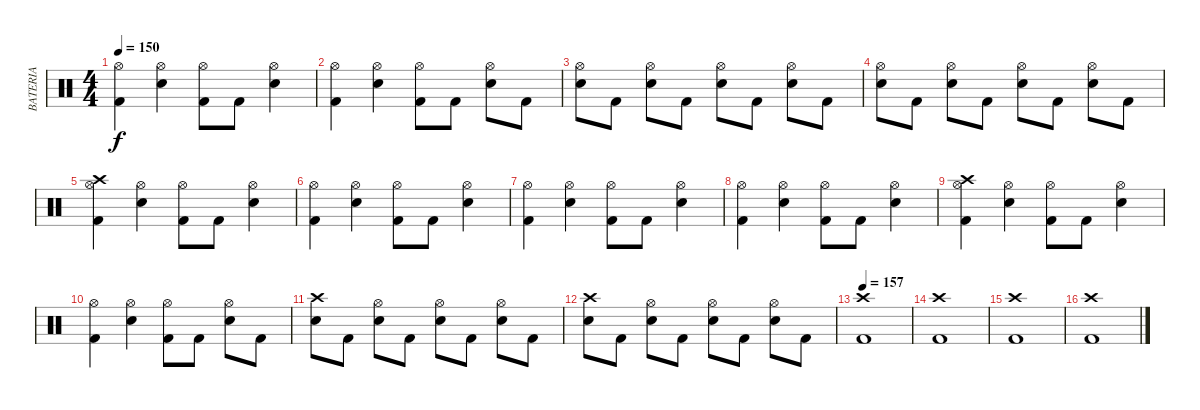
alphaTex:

\track ("BATERIA" "BATERIA") {instrument percussion}
\staff {score}
\articulation defaults
\ts (4 4)
\tempo 150
\clef neutral
\ks c
("Hi-Hat (open)" "Kick (hit) 2").4{dy f} ("Hi-Hat (open)" "Snare (hit) 2").4 ("Hi-Hat (open)" "Kick (hit) 2").8 "Kick (hit) 2".8 ("Hi-Hat (open)" "Snare (hit) 2").4 |
("Hi-Hat (open)" "Kick (hit) 2").4 ("Hi-Hat (open)" "Snare (hit) 2").4 ("Hi-Hat (open)" "Kick (hit) 2").8 "Kick (hit) 2".8 ("Hi-Hat (open)" "Snare (hit) 2").8 "Kick (hit) 2".8 |
("Hi-Hat (open)" "Snare (hit) 2").8 "Kick (hit) 2".8 ("Hi-Hat (open)" "Snare (hit) 2").8 "Kick (hit) 2".8 ("Hi-Hat (open)" "Snare (hit) 2").8 "Kick (hit) 2".8 ("Hi-Hat (open)" "Snare (hit) 2").8 "Kick (hit) 2".8 |
("Hi-Hat (open)" "Snare (hit) 2").8 "Kick (hit) 2".8 ("Hi-Hat (open)" "Snare (hit) 2").8 "Kick (hit) 2".8 ("Hi-Hat (open)" "Snare (hit) 2").8 "Kick (hit) 2".8 ("Hi-Hat (open)" "Snare (hit) 2").8 "Kick (hit) 2".8 |
("Crash high (hit)" "Hi-Hat (open)" "Kick (hit) 2").4 ("Hi-Hat (open)" "Snare (hit) 2").4 ("Hi-Hat (open)" "Kick (hit) 2").8 "Kick (hit) 2".8 ("Hi-Hat (open)" "Snare (hit) 2").4 |
("Hi-Hat (open)" "Kick (hit) 2").4 ("Hi-Hat (open)" "Snare (hit) 2").4 ("Hi-Hat (open)" "Kick (hit) 2").8 "Kick (hit) 2".8 ("Hi-Hat (open)" "Snare (hit) 2").4 |
("Hi-Hat (open)" "Kick (hit) 2").4 ("Hi-Hat (open)" "Snare (hit) 2").4 ("Hi-Hat (open)" "Kick (hit) 2").8 "Kick (hit) 2".8 ("Hi-Hat (open)" "Snare (hit) 2").4 |
("Hi-Hat (open)" "Kick (hit) 2").4 ("Hi-Hat (open)" "Snare (hit) 2").4 ("Hi-Hat (open)" "Kick (hit) 2").8 "Kick (hit) 2".8 ("Hi-Hat (open)" "Snare (hit) 2").4 |
("Crash high (hit)" "Hi-Hat (open)" "Kick (hit) 2").4 ("Hi-Hat (open)" "Snare (hit) 2").4 ("Hi-Hat (open)" "Kick (hit) 2").8 "Kick (hit) 2".8 ("Hi-Hat (open)" "Snare (hit) 2").4 |
("Hi-Hat (open)" "Kick (hit) 2").4 ("Hi-Hat (open)" "Snare (hit) 2").4 ("Hi-Hat (open)" "Kick (hit) 2").8 "Kick (hit) 2".8 ("Hi-Hat (open)" "Snare (hit) 2").8 "Kick (hit) 2".8 |
("Crash high (hit)" "Snare (hit) 2").8 "Kick (hit) 2".8 ("Hi-Hat (open)" "Snare (hit) 2").8 "Kick (hit) 2".8 ("Hi-Hat (open)" "Snare (hit) 2").8 "Kick (hit) 2".8 ("Hi-Hat (open)" "Snare (hit) 2").8 "Kick (hit) 2".8 |
("Crash high (hit)" "Snare (hit) 2").8 "Kick (hit) 2".8 ("Hi-Hat (open)" "Snare (hit) 2").8 "Kick (hit) 2".8 ("Hi-Hat (open)" "Snare (hit) 2").8 "Kick (hit) 2".8 ("Hi-Hat (open)" "Snare (hit) 2").8 "Kick (hit) 2".8 |
\tempo 157
("Crash high (hit)" "Kick (hit) 2").1 |
("Crash high (hit)" "Kick (hit) 2").1 |
("Crash high (hit)" "Kick (hit) 2").1 |
("Crash high (hit)" "Kick (hit) 2").1
